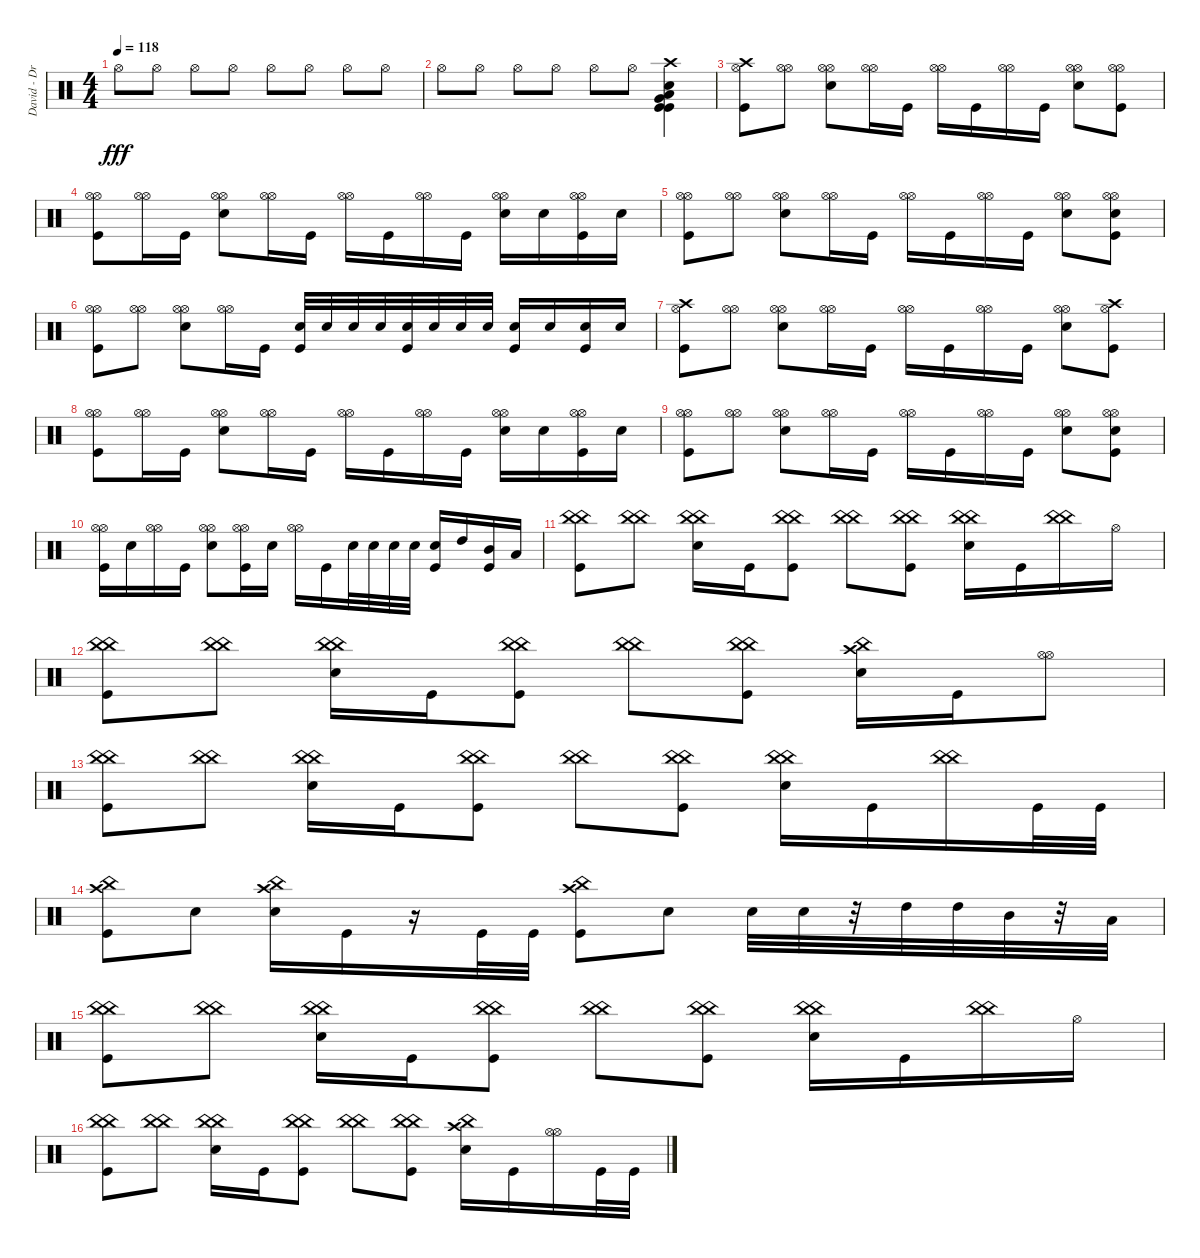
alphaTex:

\track ("David - Drums" "David - Dr") {instrument percussion}
\staff {score}
\articulation defaults
\ts (4 4)
\tempo 118
\clef neutral
\ks c "Hi-Hat (open)".8{dy fff} "Hi-Hat (open)".8 "Hi-Hat (open)".8 "Hi-Hat (open)".8 "Hi-Hat (open)".8 "Hi-Hat (open)".8 "Hi-Hat (open)".8 "Hi-Hat (open)".8
|
"Hi-Hat (open)".8 "Hi-Hat (open)".8 "Hi-Hat (open)".8 "Hi-Hat (open)".8 "Hi-Hat (open)".8 "Hi-Hat (open)".8 ("Crash high (hit)" "Kick (hit)" "Very Low Tom (hit)" "Snare (hit) 2" "Low Floor Tom (hit)" "Kick (hit)").4 |
("Hi-Hat (open)" "Crash high (hit)" "Kick (hit)").8 ("Hi-Hat (open)" "Hi-Hat (open)").8 ("Hi-Hat (open)" "Hi-Hat (open)" "Snare (hit) 2").8 ("Hi-Hat (open)" "Hi-Hat (open)").16 "Kick (hit)".16 ("Hi-Hat (open)" "Hi-Hat (open)").16 "Kick (hit)".16 ("Hi-Hat (open)" "Hi-Hat (open)").16 "Kick (hit)".16 ("Hi-Hat (open)" "Hi-Hat (open)" "Snare (hit) 2").8 ("Hi-Hat (open)" "Hi-Hat (open)" "Kick (hit)").8 |
("Hi-Hat (open)" "Hi-Hat (open)" "Kick (hit)").8 ("Hi-Hat (open)" "Hi-Hat (open)").16 "Kick (hit)".16 ("Hi-Hat (open)" "Hi-Hat (open)" "Snare (hit) 2").8 ("Hi-Hat (open)" "Hi-Hat (open)").16 "Kick (hit)".16 ("Hi-Hat (open)" "Hi-Hat (open)").16 "Kick (hit)".16 ("Hi-Hat (open)" "Hi-Hat (open)").16 "Kick (hit)".16 ("Hi-Hat (open)" "Hi-Hat (open)" "Snare (hit) 2").16 "Snare (hit) 2".16 ("Hi-Hat (open)" "Hi-Hat (open)" "Kick (hit)").16 "Snare (hit) 2".16 |
("Hi-Hat (open)" "Hi-Hat (open)" "Kick (hit)").8 ("Hi-Hat (open)" "Hi-Hat (open)").8 ("Hi-Hat (open)" "Hi-Hat (open)" "Snare (hit) 2").8 ("Hi-Hat (open)" "Hi-Hat (open)").16 "Kick (hit)".16 ("Hi-Hat (open)" "Hi-Hat (open)").16 "Kick (hit)".16 ("Hi-Hat (open)" "Hi-Hat (open)").16 "Kick (hit)".16 ("Hi-Hat (open)" "Hi-Hat (open)" "Snare (hit) 2").8 ("Hi-Hat (open)" "Hi-Hat (open)" "Snare (hit) 2" "Kick (hit)").8 |
("Hi-Hat (open)" "Hi-Hat (open)" "Kick (hit)").8 ("Hi-Hat (open)" "Hi-Hat (open)").8 ("Hi-Hat (open)" "Hi-Hat (open)" "Snare (hit) 2").8 ("Hi-Hat (open)" "Hi-Hat (open)").16 "Kick (hit)".16 ("Snare (hit) 2" "Kick (hit)").32 "Snare (hit) 2".32 "Snare (hit) 2".32 "Snare (hit) 2".32 ("Snare (hit) 2" "Kick (hit)").32 "Snare (hit) 2".32 "Snare (hit) 2".32 "Snare (hit) 2".32 ("Snare (hit) 2" "Kick (hit)").16 "Snare (hit) 2".16 ("Snare (hit) 2" "Kick (hit)").16 "Snare (hit) 2".16 |
("Hi-Hat (open)" "Crash high (hit)" "Kick (hit)").8 ("Hi-Hat (open)" "Hi-Hat (open)").8 ("Hi-Hat (open)" "Hi-Hat (open)" "Snare (hit) 2").8 ("Hi-Hat (open)" "Hi-Hat (open)").16 "Kick (hit)".16 ("Hi-Hat (open)" "Hi-Hat (open)").16 "Kick (hit)".16 ("Hi-Hat (open)" "Hi-Hat (open)").16 "Kick (hit)".16 ("Hi-Hat (open)" "Hi-Hat (open)" "Snare (hit) 2").8 ("Hi-Hat (open)" "Crash high (hit)" "Kick (hit)").8 |
("Hi-Hat (open)" "Hi-Hat (open)" "Kick (hit)").8 ("Hi-Hat (open)" "Hi-Hat (open)").16 "Kick (hit)".16 ("Hi-Hat (open)" "Hi-Hat (open)" "Snare (hit) 2").8 ("Hi-Hat (open)" "Hi-Hat (open)").16 "Kick (hit)".16 ("Hi-Hat (open)" "Hi-Hat (open)").16 "Kick (hit)".16 ("Hi-Hat (open)" "Hi-Hat (open)").16 "Kick (hit)".16 ("Hi-Hat (open)" "Hi-Hat (open)" "Snare (hit) 2").16 "Snare (hit) 2".16 ("Hi-Hat (open)" "Hi-Hat (open)" "Kick (hit)").16 "Snare (hit) 2".16 |
("Hi-Hat (open)" "Hi-Hat (open)" "Kick (hit)").8 ("Hi-Hat (open)" "Hi-Hat (open)").8 ("Hi-Hat (open)" "Hi-Hat (open)" "Snare (hit) 2").8 ("Hi-Hat (open)" "Hi-Hat (open)").16 "Kick (hit)".16 ("Hi-Hat (open)" "Hi-Hat (open)").16 "Kick (hit)".16 ("Hi-Hat (open)" "Hi-Hat (open)").16 "Kick (hit)".16 ("Hi-Hat (open)" "Hi-Hat (open)" "Snare (hit) 2").8 ("Hi-Hat (open)" "Hi-Hat (open)" "Snare (hit) 2" "Kick (hit)").8 |
("Hi-Hat (open)" "Hi-Hat (open)" "Kick (hit)").16 "Snare (hit) 2".16 ("Hi-Hat (open)" "Hi-Hat (open)").16 "Kick (hit)".16 ("Hi-Hat (open)" "Hi-Hat (open)" "Snare (hit) 2").8 ("Hi-Hat (open)" "Hi-Hat (open)" "Kick (hit)").16 "Snare (hit) 2".16 ("Hi-Hat (open)" "Hi-Hat (open)").16 "Kick (hit)".16 "Snare (hit) 2".32 "Snare (hit) 2".32 "Snare (hit) 2".32 "Snare (hit) 2".32 ("Snare (hit) 2" "Kick (hit)").16 "High Tom (hit)".16 ("Mid Tom (hit)" "Kick (hit)").16 "Low Tom (hit)".16 |
("China (hit)" "China (hit)" "Kick (hit)").8 ("China (hit)" "China (hit)").8 ("China (hit)" "China (hit)" "Snare (hit) 2").16 "Kick (hit)".16 ("China (hit)" "China (hit)" "Kick (hit)").8 ("China (hit)" "China (hit)").8 ("China (hit)" "China (hit)" "Kick (hit)").8 ("China (hit)" "China (hit)" "Snare (hit) 2").16 "Kick (hit)".16 ("China (hit)" "China (hit)").16 "Hi-Hat (open)".16 |
("China (hit)" "China (hit)" "Kick (hit)").8 ("China (hit)" "China (hit)").8 ("China (hit)" "China (hit)" "Snare (hit) 2").16 "Kick (hit)".16 ("China (hit)" "China (hit)" "Kick (hit)").8 ("China (hit)" "China (hit)").8 ("China (hit)" "China (hit)" "Kick (hit)").8 ("Crash high (hit)" "China (hit)" "Snare (hit) 2").16 "Kick (hit)".16 ("Hi-Hat (open)" "Hi-Hat (open)").8 |
("China (hit)" "China (hit)" "Kick (hit)").8 ("China (hit)" "China (hit)").8 ("China (hit)" "China (hit)" "Snare (hit) 2").16 "Kick (hit)".16 ("China (hit)" "China (hit)" "Kick (hit)").8 ("China (hit)" "China (hit)").8 ("China (hit)" "China (hit)" "Kick (hit)").8 ("China (hit)" "China (hit)" "Snare (hit) 2").16 "Kick (hit)".16 ("China (hit)" "China (hit)").16 "Kick (hit)".32 "Kick (hit)".32 |
("Crash high (hit)" "China (hit)" "Kick (hit)").8 "Snare (hit) 2".8 ("China (hit)" "Crash high (hit)" "Snare (hit) 2").16 "Kick (hit)".16 r.16 "Kick (hit)".32 "Kick (hit)".32 ("Crash high (hit)" "China (hit)" "Kick (hit)").8 "Snare (hit) 2".8 "Snare (hit) 2".32 "Snare (hit) 2".32 r.32 "High Tom (hit)".32 "High Tom (hit)".32 "Mid Tom (hit)".32 r.32 "Low Tom (hit)".32 |
("China (hit)" "China (hit)" "Kick (hit)").8 ("China (hit)" "China (hit)").8 ("China (hit)" "China (hit)" "Snare (hit) 2").16 "Kick (hit)".16 ("China (hit)" "China (hit)" "Kick (hit)").8 ("China (hit)" "China (hit)").8 ("China (hit)" "China (hit)" "Kick (hit)").8 ("China (hit)" "China (hit)" "Snare (hit) 2").16 "Kick (hit)".16 ("China (hit)" "China (hit)").16 "Hi-Hat (open)".16 |
("China (hit)" "China (hit)" "Kick (hit)").8 ("China (hit)" "China (hit)").8 ("China (hit)" "China (hit)" "Snare (hit) 2").16 "Kick (hit)".16 ("China (hit)" "China (hit)" "Kick (hit)").8 ("China (hit)" "China (hit)").8 ("China (hit)" "China (hit)" "Kick (hit)").8 ("Crash high (hit)" "China (hit)" "Snare (hit) 2").16 "Kick (hit)".16 ("Hi-Hat (open)" "Hi-Hat (open)").16 "Kick (hit)".32 "Kick (hit)".32
